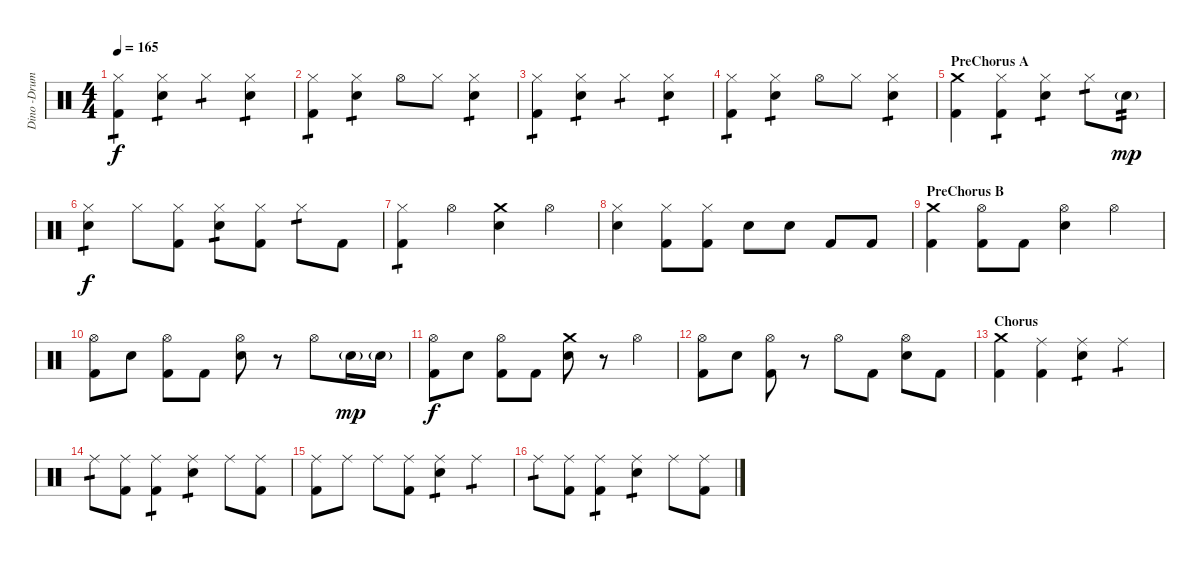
\track ("Dino -Drums" "Dino -Drum") {instrument percussion}
\staff {score}
\articulation defaults
\ts (4 4)
\tempo 165
\clef neutral
\ks c
("Hi-Hat (closed)" "Kick (hit) 2").4{tp 1 dy f} ("Hi-Hat (closed)" "Electric Snare (hit)").4{tp 1} "Hi-Hat (closed)".4{tp 1} ("Hi-Hat (closed)" "Electric Snare (hit)").4{tp 1} |
("Hi-Hat (closed)" "Kick (hit) 2").4{tp 1} ("Hi-Hat (closed)" "Electric Snare (hit)").4{tp 1} "Hi-Hat (open)".8 "Hi-Hat (closed)".8 ("Hi-Hat (closed)" "Electric Snare (hit)").4{tp 1} |
("Hi-Hat (closed)" "Kick (hit) 2").4{tp 1} ("Hi-Hat (closed)" "Electric Snare (hit)").4{tp 1} "Hi-Hat (closed)".4{tp 1} ("Hi-Hat (closed)" "Electric Snare (hit)").4{tp 1} |
("Hi-Hat (closed)" "Kick (hit) 2").4{tp 1} ("Hi-Hat (closed)" "Electric Snare (hit)").4{tp 1} "Hi-Hat (open)".8 "Hi-Hat (closed)".8 ("Hi-Hat (closed)" "Electric Snare (hit)").4{tp 1} |
\section ("" "PreChorus A")
("Crash medium (hit)" "Kick (hit) 2").4 ("Hi-Hat (closed)" "Kick (hit) 2").4{tp 1} ("Hi-Hat (closed)" "Electric Snare (hit)").4{tp 1} "Hi-Hat (closed)".8{tp 1} "Electric Snare (hit)"{g}.8{tp 2 dy mp} |
("Hi-Hat (closed)" "Electric Snare (hit)").4{tp 1 dy f} "Hi-Hat (closed)".8 ("Hi-Hat (closed)" "Kick (hit) 2").8 ("Hi-Hat (closed)" "Electric Snare (hit)").8{tp 1} ("Hi-Hat (closed)" "Kick (hit) 2").8 "Hi-Hat (closed)".8{tp 1} "Kick (hit) 2".8 |
("Hi-Hat (closed)" "Kick (hit) 2").4{tp 1} "Hi-Hat (open)".4 ("Crash medium (hit)" "Electric Snare (hit)").4 "Hi-Hat (open)".4 |
("Hi-Hat (closed)" "Electric Snare (hit)").4 ("Hi-Hat (closed)" "Kick (hit) 2").8 ("Hi-Hat (closed)" "Kick (hit) 2").8 "Electric Snare (hit)".8 "Electric Snare (hit)".8 "Kick (hit) 2".8 "Kick (hit) 2".8 |
\section ("" "PreChorus B")
("Crash medium (hit)" "Kick (hit) 2").4 ("Hi-Hat (open)" "Kick (hit) 2").8 "Kick (hit) 2".8 ("Hi-Hat (open)" "Electric Snare (hit)").4 "Hi-Hat (open)".4 |
("Hi-Hat (open)" "Kick (hit) 2").8 "Electric Snare (hit)".8 ("Hi-Hat (open)" "Kick (hit) 2").8 "Kick (hit) 2".8 ("Hi-Hat (open)" "Electric Snare (hit)").8 r.8 "Hi-Hat (open)".8 "Electric Snare (hit)"{g}.16{dy mp} "Electric Snare (hit)"{g}.16 |
("Hi-Hat (open)" "Kick (hit) 2").8{dy f} "Electric Snare (hit)".8 ("Hi-Hat (open)" "Kick (hit) 2").8 "Kick (hit) 2".8 ("Crash medium (hit)" "Electric Snare (hit)").8 r.8 "Hi-Hat (open)".4 |
("Hi-Hat (open)" "Kick (hit) 2").8 "Electric Snare (hit)".8 ("Hi-Hat (open)" "Kick (hit) 2").8 r.8 "Hi-Hat (open)".8 "Kick (hit) 2".8 ("Hi-Hat (open)" "Electric Snare (hit)").8 "Kick (hit) 2".8 |
\section ("" "Chorus")
("Crash medium (hit)" "Kick (hit) 2").4 ("Ride (middle)" "Kick (hit) 2").4 ("Ride (middle)" "Electric Snare (hit)").4{tp 1} "Ride (middle)".4{tp 1} |
"Ride (middle)".8{tp 1} ("Ride (middle)" "Kick (hit) 2").8 ("Ride (middle)" "Kick (hit) 2").4{tp 1} ("Ride (middle)" "Electric Snare (hit)").4{tp 1} "Ride (middle)".8 ("Ride (middle)" "Kick (hit) 2").8 |
("Ride (middle)" "Kick (hit) 2").8 "Ride (middle)".8 "Ride (middle)".8 ("Ride (middle)" "Kick (hit) 2").8 ("Ride (middle)" "Electric Snare (hit)").4{tp 1} "Ride (middle)".4{tp 1} |
"Ride (middle)".8{tp 1} ("Ride (middle)" "Kick (hit) 2").8 ("Ride (middle)" "Kick (hit) 2").4{tp 1} ("Ride (middle)" "Electric Snare (hit)").4{tp 1} "Ride (middle)".8 ("Ride (middle)" "Kick (hit) 2").8
